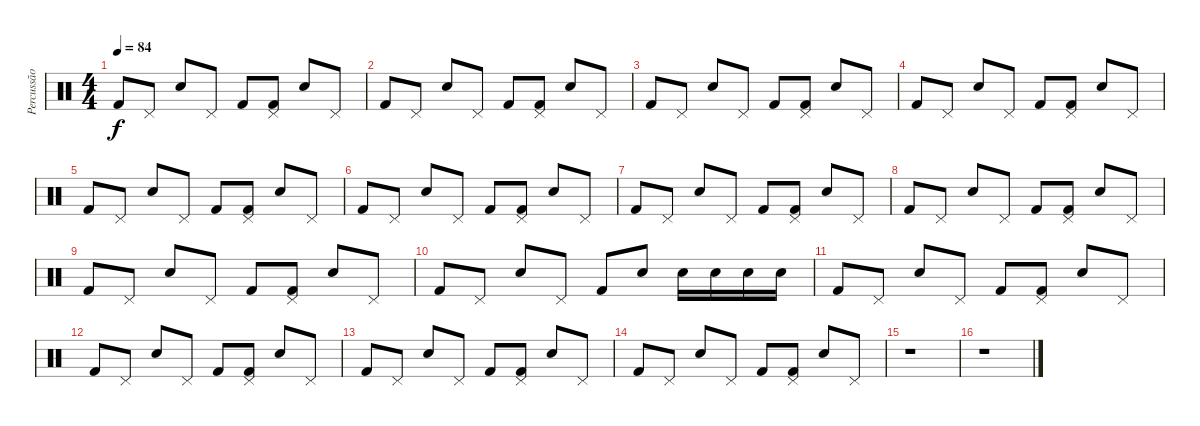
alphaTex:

\track ("Percussão" "Percussão") {instrument percussion}
\staff {score}
\articulation defaults
\ts (4 4)
\tempo 84
\clef neutral
\ks c "Kick (hit) 2".8{dy f} "Pedal Hi-Hat (hit)".8 "Snare (hit) 2".8 "Pedal Hi-Hat (hit)".8 "Kick (hit) 2".8
("Pedal Hi-Hat (hit)" "Kick (hit) 2").8 "Snare (hit) 2".8 "Pedal Hi-Hat (hit)".8 |
"Kick (hit) 2".8 "Pedal Hi-Hat (hit)".8 "Snare (hit) 2".8 "Pedal Hi-Hat (hit)".8 "Kick (hit) 2".8 ("Pedal Hi-Hat (hit)" "Kick (hit) 2").8 "Snare (hit) 2".8 "Pedal Hi-Hat (hit)".8 |
"Kick (hit) 2".8 "Pedal Hi-Hat (hit)".8 "Snare (hit) 2".8 "Pedal Hi-Hat (hit)".8 "Kick (hit) 2".8 ("Pedal Hi-Hat (hit)" "Kick (hit) 2").8 "Snare (hit) 2".8 "Pedal Hi-Hat (hit)".8 |
"Kick (hit) 2".8 "Pedal Hi-Hat (hit)".8 "Snare (hit) 2".8 "Pedal Hi-Hat (hit)".8 "Kick (hit) 2".8 ("Pedal Hi-Hat (hit)" "Kick (hit) 2").8 "Snare (hit) 2".8 "Pedal Hi-Hat (hit)".8 |
"Kick (hit) 2".8 "Pedal Hi-Hat (hit)".8 "Snare (hit) 2".8 "Pedal Hi-Hat (hit)".8 "Kick (hit) 2".8 ("Pedal Hi-Hat (hit)" "Kick (hit) 2").8 "Snare (hit) 2".8 "Pedal Hi-Hat (hit)".8 |
"Kick (hit) 2".8 "Pedal Hi-Hat (hit)".8 "Snare (hit) 2".8 "Pedal Hi-Hat (hit)".8 "Kick (hit) 2".8 ("Pedal Hi-Hat (hit)" "Kick (hit) 2").8 "Snare (hit) 2".8 "Pedal Hi-Hat (hit)".8 |
"Kick (hit) 2".8 "Pedal Hi-Hat (hit)".8 "Snare (hit) 2".8 "Pedal Hi-Hat (hit)".8 "Kick (hit) 2".8 ("Pedal Hi-Hat (hit)" "Kick (hit) 2").8 "Snare (hit) 2".8 "Pedal Hi-Hat (hit)".8 |
"Kick (hit) 2".8 "Pedal Hi-Hat (hit)".8 "Snare (hit) 2".8 "Pedal Hi-Hat (hit)".8 "Kick (hit) 2".8 ("Pedal Hi-Hat (hit)" "Kick (hit) 2").8 "Snare (hit) 2".8 "Pedal Hi-Hat (hit)".8 |
"Kick (hit) 2".8 "Pedal Hi-Hat (hit)".8 "Snare (hit) 2".8 "Pedal Hi-Hat (hit)".8 "Kick (hit) 2".8 ("Pedal Hi-Hat (hit)" "Kick (hit) 2").8 "Snare (hit) 2".8 "Pedal Hi-Hat (hit)".8 |
"Kick (hit) 2".8 "Pedal Hi-Hat (hit)".8 "Snare (hit) 2".8 "Pedal Hi-Hat (hit)".8 "Kick (hit) 2".8 "Electric Snare (hit)".8 "Electric Snare (hit)".16 "Electric Snare (hit)".16 "Electric Snare (hit)".16 "Electric Snare (hit)".16 |
"Kick (hit) 2".8 "Pedal Hi-Hat (hit)".8 "Snare (hit) 2".8 "Pedal Hi-Hat (hit)".8 "Kick (hit) 2".8 ("Pedal Hi-Hat (hit)" "Kick (hit) 2").8 "Snare (hit) 2".8 "Pedal Hi-Hat (hit)".8 |
"Kick (hit) 2".8 "Pedal Hi-Hat (hit)".8 "Snare (hit) 2".8 "Pedal Hi-Hat (hit)".8 "Kick (hit) 2".8 ("Pedal Hi-Hat (hit)" "Kick (hit) 2").8 "Snare (hit) 2".8 "Pedal Hi-Hat (hit)".8 |
"Kick (hit) 2".8 "Pedal Hi-Hat (hit)".8 "Snare (hit) 2".8 "Pedal Hi-Hat (hit)".8 "Kick (hit) 2".8 ("Pedal Hi-Hat (hit)" "Kick (hit) 2").8 "Snare (hit) 2".8 "Pedal Hi-Hat (hit)".8 |
"Kick (hit) 2".8 "Pedal Hi-Hat (hit)".8 "Snare (hit) 2".8 "Pedal Hi-Hat (hit)".8 "Kick (hit) 2".8 ("Pedal Hi-Hat (hit)" "Kick (hit) 2").8 "Snare (hit) 2".8 "Pedal Hi-Hat (hit)".8 |
r.1 |
r.1
